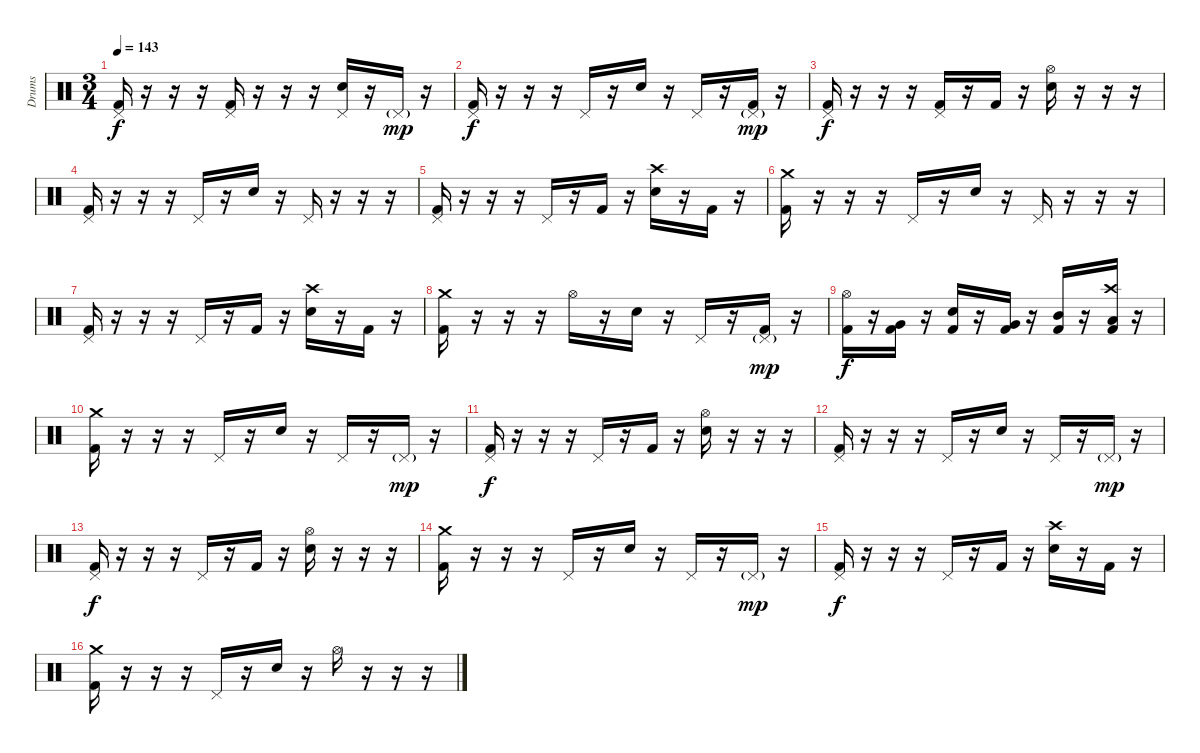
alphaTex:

\track ("Drums" "Drums") {instrument percussion}
\staff {score}
\articulation defaults
\ts (3 4)
\tempo 143
\clef neutral
\ks c
("Pedal Hi-Hat (hit)" "Kick (hit) 2").16{dy f} r.16 r.16 r.16 ("Pedal Hi-Hat (hit)" "Kick (hit) 2").16 r.16 r.16 r.16 ("Pedal Hi-Hat (hit)" "Electric Snare (hit)").16 r.16 "Pedal Hi-Hat (hit)"{g}.16{dy mp} r.16 |
("Pedal Hi-Hat (hit)" "Kick (hit) 2").16{dy f} r.16 r.16 r.16 "Pedal Hi-Hat (hit)".16 r.16 "Electric Snare (hit)".16 r.16 "Pedal Hi-Hat (hit)".16 r.16 ("Pedal Hi-Hat (hit)"{g} "Kick (hit) 2").16{dy mp} r.16 |
("Pedal Hi-Hat (hit)" "Kick (hit) 2").16{dy f} r.16 r.16 r.16 ("Pedal Hi-Hat (hit)" "Kick (hit) 2").16 r.16 "Kick (hit) 2".16 r.16 ("Hi-Hat (open)" "Electric Snare (hit)").16 r.16 r.16 r.16 |
("Pedal Hi-Hat (hit)" "Kick (hit) 2").16 r.16 r.16 r.16 "Pedal Hi-Hat (hit)".16 r.16 "Electric Snare (hit)".16 r.16 "Pedal Hi-Hat (hit)".16 r.16 r.16 r.16 |
("Pedal Hi-Hat (hit)" "Kick (hit) 2").16 r.16 r.16 r.16 "Pedal Hi-Hat (hit)".16 r.16 "Kick (hit) 2".16 r.16 ("Crash high (hit)" "Electric Snare (hit)").16 r.16 "Kick (hit) 2".16 r.16 |
("Crash medium (hit)" "Kick (hit) 2").16 r.16 r.16 r.16 "Pedal Hi-Hat (hit)".16 r.16 "Electric Snare (hit)".16 r.16 "Pedal Hi-Hat (hit)".16 r.16 r.16 r.16 |
("Pedal Hi-Hat (hit)" "Kick (hit) 2").16 r.16 r.16 r.16 "Pedal Hi-Hat (hit)".16 r.16 "Kick (hit) 2".16 r.16 ("Crash high (hit)" "Electric Snare (hit)").16 r.16 "Kick (hit) 2".16 r.16 |
("Crash medium (hit)" "Kick (hit) 2").16 r.16 r.16 r.16 "Hi-Hat (open)".16 r.16 "Electric Snare (hit)".16 r.16 "Pedal Hi-Hat (hit)".16 r.16 ("Pedal Hi-Hat (hit)"{g} "Kick (hit) 2").16{dy mp} r.16 |
("Hi-Hat (open)" "Kick (hit) 2").16{dy f} r.16 ("Very Low Tom (hit)" "Kick (hit) 2").16 r.16 ("Electric Snare (hit)" "Kick (hit) 2").16 r.16 ("Very Low Tom (hit)" "Kick (hit) 2").16 r.16 ("Mid Tom (hit)" "Kick (hit) 2").16 r.16 ("Crash high (hit)" "Low Tom (hit)" "Kick (hit) 2").16 r.16 |
("Crash medium (hit)" "Kick (hit) 2").16 r.16 r.16 r.16 "Pedal Hi-Hat (hit)".16 r.16 "Electric Snare (hit)".16 r.16 "Pedal Hi-Hat (hit)".16 r.16 "Pedal Hi-Hat (hit)"{g}.16{dy mp} r.16 |
("Pedal Hi-Hat (hit)" "Kick (hit) 2").16{dy f} r.16 r.16 r.16 "Pedal Hi-Hat (hit)".16 r.16 "Kick (hit) 2".16 r.16 ("Hi-Hat (open)" "Electric Snare (hit)").16 r.16 r.16 r.16 |
("Pedal Hi-Hat (hit)" "Kick (hit) 2").16 r.16 r.16 r.16 "Pedal Hi-Hat (hit)".16 r.16 "Electric Snare (hit)".16 r.16 "Pedal Hi-Hat (hit)".16 r.16 "Pedal Hi-Hat (hit)"{g}.16{dy mp} r.16 |
("Pedal Hi-Hat (hit)" "Kick (hit) 2").16{dy f} r.16 r.16 r.16 "Pedal Hi-Hat (hit)".16 r.16 "Kick (hit) 2".16 r.16 ("Hi-Hat (open)" "Electric Snare (hit)").16 r.16 r.16 r.16 |
("Crash medium (hit)" "Kick (hit) 2").16 r.16 r.16 r.16 "Pedal Hi-Hat (hit)".16 r.16 "Electric Snare (hit)".16 r.16 "Pedal Hi-Hat (hit)".16 r.16 "Pedal Hi-Hat (hit)"{g}.16{dy mp} r.16 |
("Pedal Hi-Hat (hit)" "Kick (hit) 2").16{dy f} r.16 r.16 r.16 "Pedal Hi-Hat (hit)".16 r.16 "Kick (hit) 2".16 r.16 ("Crash high (hit)" "Electric Snare (hit)").16 r.16 "Kick (hit) 2".16 r.16 |
("Crash medium (hit)" "Kick (hit) 2").16 r.16 r.16 r.16 "Pedal Hi-Hat (hit)".16 r.16 "Electric Snare (hit)".16 r.16 "Hi-Hat (open)".16 r.16 r.16 r.16
